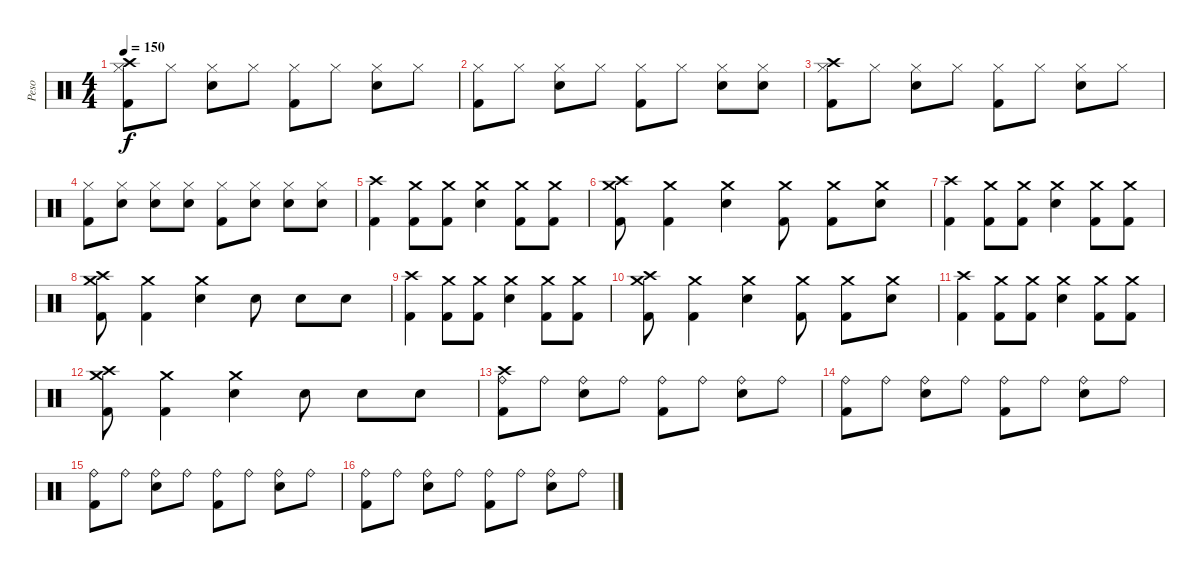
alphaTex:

\track ("Peso" "Peso") {instrument percussion}
\staff {score}
\articulation defaults
\ts (4 4)
\tempo 150
\clef neutral
\ks c
("Crash high (hit)" "Hi-Hat (closed)" "Kick (hit) 2").8{dy f} "Hi-Hat (closed)".8 ("Hi-Hat (closed)" "Snare (hit) 2").8 "Hi-Hat (closed)".8 ("Hi-Hat (closed)" "Kick (hit) 2").8 "Hi-Hat (closed)".8 ("Hi-Hat (closed)" "Snare (hit) 2").8 "Hi-Hat (closed)".8 |
("Hi-Hat (closed)" "Kick (hit) 2").8 "Hi-Hat (closed)".8 ("Hi-Hat (closed)" "Snare (hit) 2").8 "Hi-Hat (closed)".8 ("Hi-Hat (closed)" "Kick (hit) 2").8 "Hi-Hat (closed)".8 ("Hi-Hat (closed)" "Snare (hit) 2").8 ("Hi-Hat (closed)" "Snare (hit) 2").8 |
("Crash high (hit)" "Hi-Hat (closed)" "Kick (hit) 2").8 "Hi-Hat (closed)".8 ("Hi-Hat (closed)" "Snare (hit) 2").8 "Hi-Hat (closed)".8 ("Hi-Hat (closed)" "Kick (hit) 2").8 "Hi-Hat (closed)".8 ("Hi-Hat (closed)" "Snare (hit) 2").8 "Hi-Hat (closed)".8 |
("Hi-Hat (closed)" "Kick (hit) 2").8 ("Hi-Hat (closed)" "Snare (hit) 2").8 ("Hi-Hat (closed)" "Snare (hit) 2").8 ("Hi-Hat (closed)" "Snare (hit) 2").8 ("Hi-Hat (closed)" "Kick (hit) 2").8 ("Hi-Hat (closed)" "Snare (hit) 2").8 ("Hi-Hat (closed)" "Snare (hit) 2").8 ("Hi-Hat (closed)" "Snare (hit) 2").8 |
("Crash high (hit)" "Kick (hit) 2").4 ("Crash medium (hit)" "Kick (hit) 2").8 ("Crash medium (hit)" "Kick (hit) 2").8 ("Crash medium (hit)" "Snare (hit) 2").4 ("Crash medium (hit)" "Kick (hit) 2").8 ("Crash medium (hit)" "Kick (hit) 2").8 |
("Crash high (hit)" "Crash medium (hit)" "Kick (hit) 2").8 ("Crash medium (hit)" "Kick (hit) 2").4 ("Crash medium (hit)" "Snare (hit) 2").4 ("Crash medium (hit)" "Kick (hit) 2").8 ("Crash medium (hit)" "Kick (hit) 2").8 ("Crash medium (hit)" "Snare (hit) 2").8 |
("Crash high (hit)" "Kick (hit) 2").4 ("Crash medium (hit)" "Kick (hit) 2").8 ("Crash medium (hit)" "Kick (hit) 2").8 ("Crash medium (hit)" "Snare (hit) 2").4 ("Crash medium (hit)" "Kick (hit) 2").8 ("Crash medium (hit)" "Kick (hit) 2").8 |
("Crash high (hit)" "Crash medium (hit)" "Kick (hit) 2").8 ("Crash medium (hit)" "Kick (hit) 2").4 ("Crash medium (hit)" "Snare (hit) 2").4 "Snare (hit) 2".8 "Snare (hit) 2".8 "Snare (hit) 2".8 |
("Crash high (hit)" "Kick (hit) 2").4 ("Crash medium (hit)" "Kick (hit) 2").8 ("Crash medium (hit)" "Kick (hit) 2").8 ("Crash medium (hit)" "Snare (hit) 2").4 ("Crash medium (hit)" "Kick (hit) 2").8 ("Crash medium (hit)" "Kick (hit) 2").8 |
("Crash high (hit)" "Crash medium (hit)" "Kick (hit) 2").8 ("Crash medium (hit)" "Kick (hit) 2").4 ("Crash medium (hit)" "Snare (hit) 2").4 ("Crash medium (hit)" "Kick (hit) 2").8 ("Crash medium (hit)" "Kick (hit) 2").8 ("Crash medium (hit)" "Snare (hit) 2").8 |
("Crash high (hit)" "Kick (hit) 2").4 ("Crash medium (hit)" "Kick (hit) 2").8 ("Crash medium (hit)" "Kick (hit) 2").8 ("Crash medium (hit)" "Snare (hit) 2").4 ("Crash medium (hit)" "Kick (hit) 2").8 ("Crash medium (hit)" "Kick (hit) 2").8 |
("Crash high (hit)" "Crash medium (hit)" "Kick (hit) 2").8 ("Crash medium (hit)" "Kick (hit) 2").4 ("Crash medium (hit)" "Snare (hit) 2").4 "Snare (hit) 2".8 "Snare (hit) 2".8 "Snare (hit) 2".8 |
("Crash high (hit)" "Ride (bell)" "Kick (hit) 2").8 "Ride (bell)".8 ("Ride (bell)" "Snare (hit) 2").8 "Ride (bell)".8 ("Ride (bell)" "Kick (hit) 2").8 "Ride (bell)".8 ("Ride (bell)" "Snare (hit) 2").8 "Ride (bell)".8 |
("Ride (bell)" "Kick (hit) 2").8 "Ride (bell)".8 ("Ride (bell)" "Snare (hit) 2").8 "Ride (bell)".8 ("Ride (bell)" "Kick (hit) 2").8 "Ride (bell)".8 ("Ride (bell)" "Snare (hit) 2").8 "Ride (bell)".8 |
("Ride (bell)" "Kick (hit) 2").8 "Ride (bell)".8 ("Ride (bell)" "Snare (hit) 2").8 "Ride (bell)".8 ("Ride (bell)" "Kick (hit) 2").8 "Ride (bell)".8 ("Ride (bell)" "Snare (hit) 2").8 "Ride (bell)".8 |
("Ride (bell)" "Kick (hit) 2").8 "Ride (bell)".8 ("Ride (bell)" "Snare (hit) 2").8 "Ride (bell)".8 ("Ride (bell)" "Kick (hit) 2").8 "Ride (bell)".8 ("Ride (bell)" "Snare (hit) 2").8 "Ride (bell)".8
